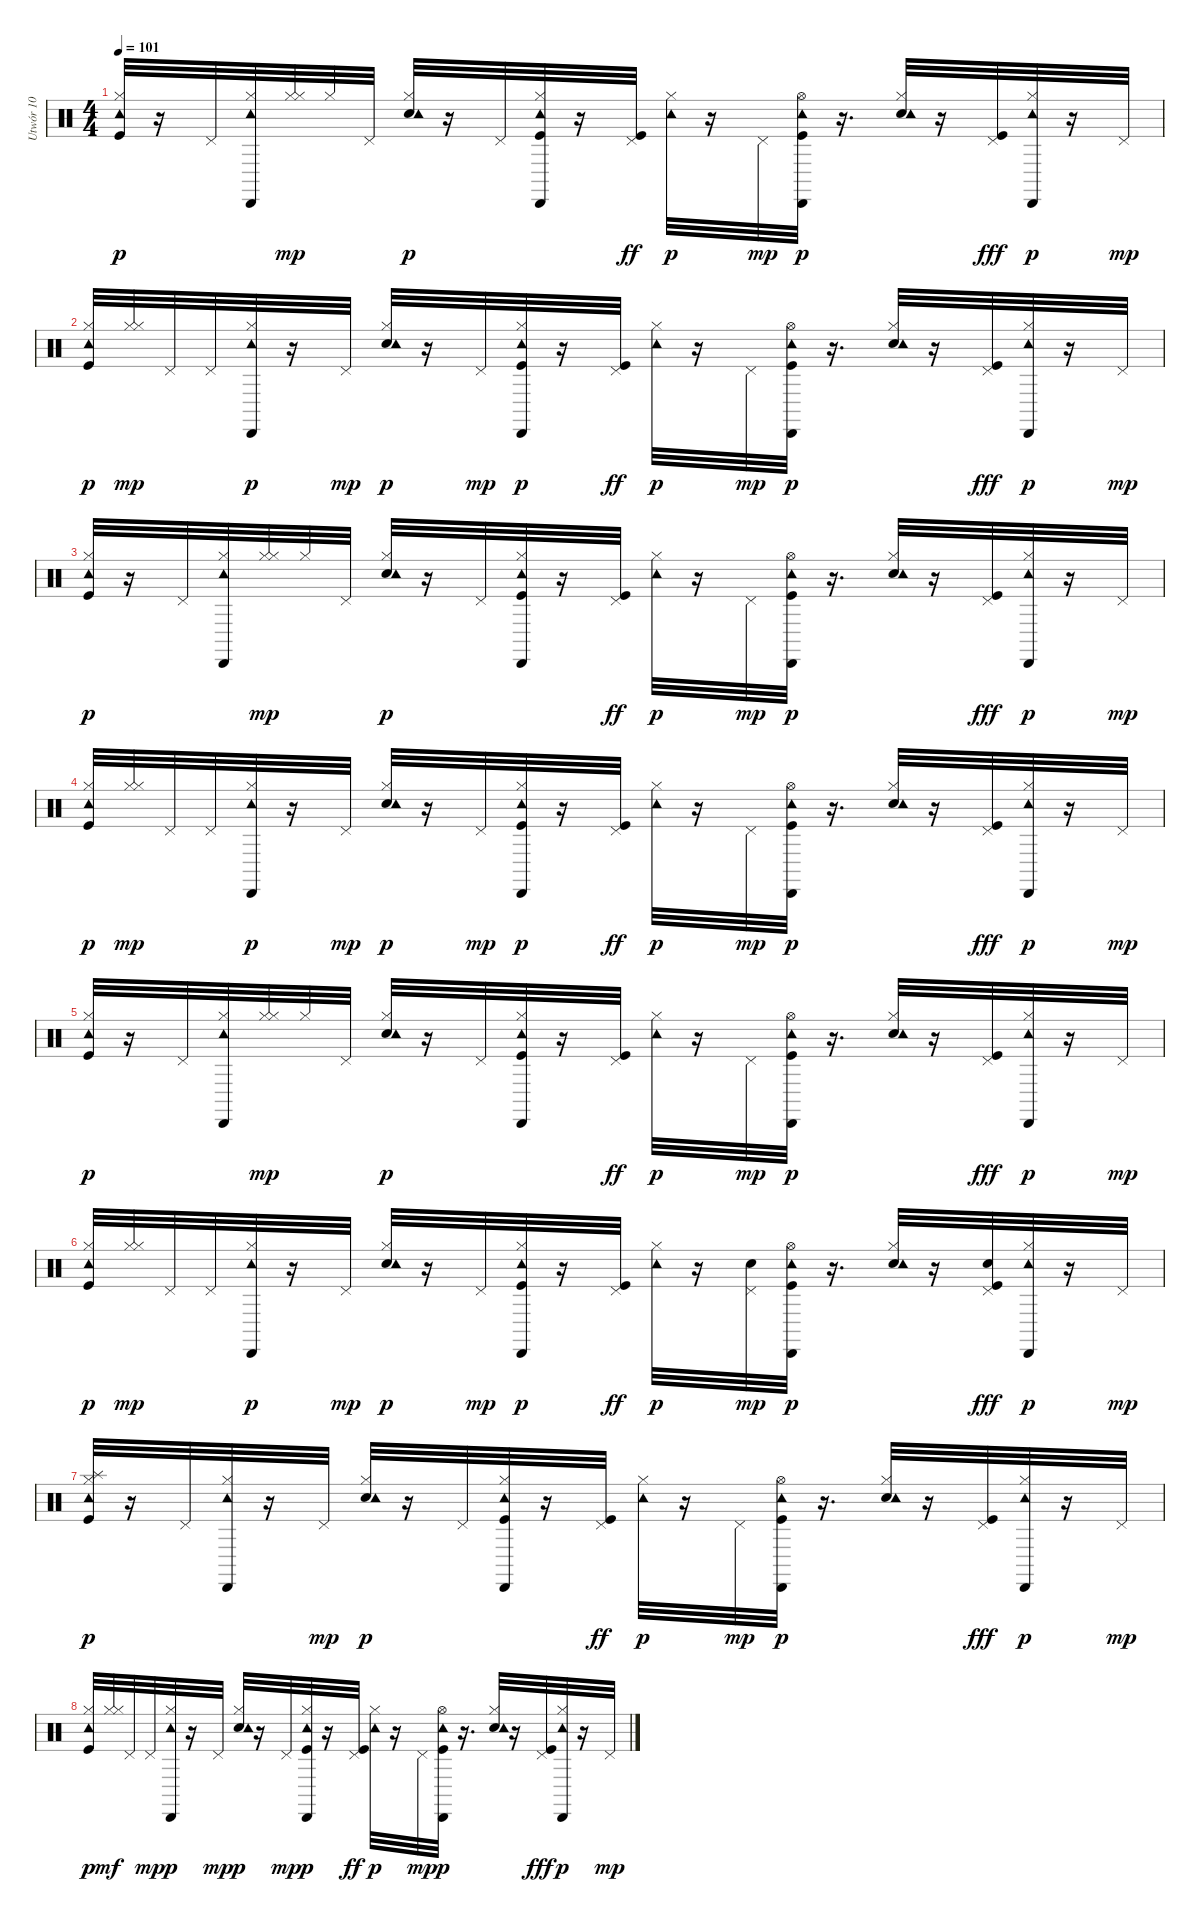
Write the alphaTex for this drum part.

\track ("Utwór 10" "Utwór 10") {instrument percussion}
\staff {score}
\articulation defaults
\ts (4 4)
\tempo 101
\clef neutral
\ks c
("Hi-Hat (closed)" "Kick (hit)" "Tambourine (hit)").32{dy p} r.16 "Pedal Hi-Hat (hit)".32 ("Cabasa (hit)" "Hi-Hat (closed)" "Tambourine (hit)").32 ("Hi-Hat (closed)" "Hi-Hat (closed)").32{dy mp} "Hi-Hat (closed)".32 "Pedal Hi-Hat (hit)".32 ("Electric Snare (hit)" "Hi-Hat (closed)" "Tambourine (hit)").32{dy p} r.16 "Pedal Hi-Hat (hit)".32 ("Cabasa (hit)" "Hi-Hat (closed)" "Kick (hit)" "Tambourine (hit)").32 r.16 ("Pedal Hi-Hat (hit)" "Kick (hit)").32{dy ff} ("Hi-Hat (closed)" "Tambourine (hit)").32{dy p} r.16 "Pedal Hi-Hat (hit)".32{dy mp} ("Cabasa (hit)" "Hi-Hat (open)" "Kick (hit)" "Tambourine (hit)").32{dy p} r.16{d} ("Electric Snare (hit)" "Hi-Hat (closed)" "Tambourine (hit)").32 r.16 ("Pedal Hi-Hat (hit)" "Kick (hit)").32{dy fff} ("Cabasa (hit)" "Hi-Hat (closed)" "Tambourine (hit)").32{dy p} r.16 "Pedal Hi-Hat (hit)".32{dy mp} |
("Hi-Hat (closed)" "Kick (hit)" "Tambourine (hit)").32{dy p} ("Hi-Hat (closed)" "Hi-Hat (closed)").32{dy mp} "Pedal Hi-Hat (hit)".32 "Pedal Hi-Hat (hit)".32 ("Cabasa (hit)" "Hi-Hat (closed)" "Tambourine (hit)").32{dy p} r.16 "Pedal Hi-Hat (hit)".32{dy mp} ("Electric Snare (hit)" "Hi-Hat (closed)" "Tambourine (hit)").32{dy p} r.16 "Pedal Hi-Hat (hit)".32{dy mp} ("Cabasa (hit)" "Hi-Hat (closed)" "Kick (hit)" "Tambourine (hit)").32{dy p} r.16 ("Pedal Hi-Hat (hit)" "Kick (hit)").32{dy ff} ("Hi-Hat (closed)" "Tambourine (hit)").32{dy p} r.16 "Pedal Hi-Hat (hit)".32{dy mp} ("Cabasa (hit)" "Hi-Hat (open)" "Kick (hit)" "Tambourine (hit)").32{dy p} r.16{d} ("Electric Snare (hit)" "Hi-Hat (closed)" "Tambourine (hit)").32 r.16 ("Pedal Hi-Hat (hit)" "Kick (hit)").32{dy fff} ("Cabasa (hit)" "Hi-Hat (closed)" "Tambourine (hit)").32{dy p} r.16 "Pedal Hi-Hat (hit)".32{dy mp} |
("Hi-Hat (closed)" "Kick (hit)" "Tambourine (hit)").32{dy p} r.16 "Pedal Hi-Hat (hit)".32 ("Cabasa (hit)" "Hi-Hat (closed)" "Tambourine (hit)").32 ("Hi-Hat (closed)" "Hi-Hat (closed)").32{dy mp} "Hi-Hat (closed)".32 "Pedal Hi-Hat (hit)".32 ("Electric Snare (hit)" "Hi-Hat (closed)" "Tambourine (hit)").32{dy p} r.16 "Pedal Hi-Hat (hit)".32 ("Cabasa (hit)" "Hi-Hat (closed)" "Kick (hit)" "Tambourine (hit)").32 r.16 ("Pedal Hi-Hat (hit)" "Kick (hit)").32{dy ff} ("Hi-Hat (closed)" "Tambourine (hit)").32{dy p} r.16 "Pedal Hi-Hat (hit)".32{dy mp} ("Cabasa (hit)" "Hi-Hat (open)" "Kick (hit)" "Tambourine (hit)").32{dy p} r.16{d} ("Electric Snare (hit)" "Hi-Hat (closed)" "Tambourine (hit)").32 r.16 ("Pedal Hi-Hat (hit)" "Kick (hit)").32{dy fff} ("Cabasa (hit)" "Hi-Hat (closed)" "Tambourine (hit)").32{dy p} r.16 "Pedal Hi-Hat (hit)".32{dy mp} |
("Hi-Hat (closed)" "Kick (hit)" "Tambourine (hit)").32{dy p} ("Hi-Hat (closed)" "Hi-Hat (closed)").32{dy mp} "Pedal Hi-Hat (hit)".32 "Pedal Hi-Hat (hit)".32 ("Cabasa (hit)" "Hi-Hat (closed)" "Tambourine (hit)").32{dy p} r.16 "Pedal Hi-Hat (hit)".32{dy mp} ("Electric Snare (hit)" "Hi-Hat (closed)" "Tambourine (hit)").32{dy p} r.16 "Pedal Hi-Hat (hit)".32{dy mp} ("Cabasa (hit)" "Hi-Hat (closed)" "Kick (hit)" "Tambourine (hit)").32{dy p} r.16 ("Pedal Hi-Hat (hit)" "Kick (hit)").32{dy ff} ("Hi-Hat (closed)" "Tambourine (hit)").32{dy p} r.16 "Pedal Hi-Hat (hit)".32{dy mp} ("Cabasa (hit)" "Hi-Hat (open)" "Kick (hit)" "Tambourine (hit)").32{dy p} r.16{d} ("Electric Snare (hit)" "Hi-Hat (closed)" "Tambourine (hit)").32 r.16 ("Pedal Hi-Hat (hit)" "Kick (hit)").32{dy fff} ("Cabasa (hit)" "Hi-Hat (closed)" "Tambourine (hit)").32{dy p} r.16 "Pedal Hi-Hat (hit)".32{dy mp} |
("Hi-Hat (closed)" "Kick (hit)" "Tambourine (hit)").32{dy p} r.16 "Pedal Hi-Hat (hit)".32 ("Cabasa (hit)" "Hi-Hat (closed)" "Tambourine (hit)").32 ("Hi-Hat (closed)" "Hi-Hat (closed)").32{dy mp} "Hi-Hat (closed)".32 "Pedal Hi-Hat (hit)".32 ("Electric Snare (hit)" "Hi-Hat (closed)" "Tambourine (hit)").32{dy p} r.16 "Pedal Hi-Hat (hit)".32 ("Cabasa (hit)" "Hi-Hat (closed)" "Kick (hit)" "Tambourine (hit)").32 r.16 ("Pedal Hi-Hat (hit)" "Kick (hit)").32{dy ff} ("Hi-Hat (closed)" "Tambourine (hit)").32{dy p} r.16 "Pedal Hi-Hat (hit)".32{dy mp} ("Cabasa (hit)" "Hi-Hat (open)" "Kick (hit)" "Tambourine (hit)").32{dy p} r.16{d} ("Electric Snare (hit)" "Hi-Hat (closed)" "Tambourine (hit)").32 r.16 ("Pedal Hi-Hat (hit)" "Kick (hit)").32{dy fff} ("Cabasa (hit)" "Hi-Hat (closed)" "Tambourine (hit)").32{dy p} r.16 "Pedal Hi-Hat (hit)".32{dy mp} |
("Hi-Hat (closed)" "Kick (hit)" "Tambourine (hit)").32{dy p} ("Hi-Hat (closed)" "Hi-Hat (closed)").32{dy mp} "Pedal Hi-Hat (hit)".32 "Pedal Hi-Hat (hit)".32 ("Cabasa (hit)" "Hi-Hat (closed)" "Tambourine (hit)").32{dy p} r.16 "Pedal Hi-Hat (hit)".32{dy mp} ("Electric Snare (hit)" "Hi-Hat (closed)" "Tambourine (hit)").32{dy p} r.16 "Pedal Hi-Hat (hit)".32{dy mp} ("Cabasa (hit)" "Hi-Hat (closed)" "Kick (hit)" "Tambourine (hit)").32{dy p} r.16 ("Pedal Hi-Hat (hit)" "Kick (hit)").32{dy ff} ("Hi-Hat (closed)" "Tambourine (hit)").32{dy p} r.16 ("Electric Snare (hit)" "Pedal Hi-Hat (hit)").32{dy mp} ("Cabasa (hit)" "Hi-Hat (open)" "Kick (hit)" "Tambourine (hit)").32{dy p} r.16{d} ("Electric Snare (hit)" "Hi-Hat (closed)" "Tambourine (hit)").32 r.16 ("Electric Snare (hit)" "Pedal Hi-Hat (hit)" "Kick (hit)").32{dy fff} ("Cabasa (hit)" "Hi-Hat (closed)" "Tambourine (hit)").32{dy p} r.16 "Pedal Hi-Hat (hit)".32{dy mp} |
("Splash (hit)" "Hi-Hat (closed)" "Kick (hit)" "Tambourine (hit)").32{dy p} r.16 "Pedal Hi-Hat (hit)".32 ("Cabasa (hit)" "Hi-Hat (closed)" "Tambourine (hit)").32 r.16 "Pedal Hi-Hat (hit)".32{dy mp} ("Electric Snare (hit)" "Hi-Hat (closed)" "Tambourine (hit)").32{dy p} r.16 "Pedal Hi-Hat (hit)".32 ("Cabasa (hit)" "Hi-Hat (closed)" "Kick (hit)" "Tambourine (hit)").32 r.16 ("Pedal Hi-Hat (hit)" "Kick (hit)").32{dy ff} ("Hi-Hat (closed)" "Tambourine (hit)").32{dy p} r.16 "Pedal Hi-Hat (hit)".32{dy mp} ("Cabasa (hit)" "Hi-Hat (open)" "Kick (hit)" "Tambourine (hit)").32{dy p} r.16{d} ("Electric Snare (hit)" "Hi-Hat (closed)" "Tambourine (hit)").32 r.16 ("Pedal Hi-Hat (hit)" "Kick (hit)").32{dy fff} ("Cabasa (hit)" "Hi-Hat (closed)" "Tambourine (hit)").32{dy p} r.16 "Pedal Hi-Hat (hit)".32{dy mp} |
("Hi-Hat (closed)" "Kick (hit)" "Tambourine (hit)").32{dy p} ("Hi-Hat (closed)" "Hi-Hat (closed)").32{dy mf} "Pedal Hi-Hat (hit)".32 "Pedal Hi-Hat (hit)".32{dy mp} ("Cabasa (hit)" "Hi-Hat (closed)" "Tambourine (hit)").32{dy p} r.16 "Pedal Hi-Hat (hit)".32{dy mp} ("Electric Snare (hit)" "Hi-Hat (closed)" "Tambourine (hit)").32{dy p} r.16 "Pedal Hi-Hat (hit)".32{dy mp} ("Cabasa (hit)" "Hi-Hat (closed)" "Kick (hit)" "Tambourine (hit)").32{dy p} r.16 ("Pedal Hi-Hat (hit)" "Kick (hit)").32{dy ff} ("Hi-Hat (closed)" "Tambourine (hit)").32{dy p} r.16 "Pedal Hi-Hat (hit)".32{dy mp} ("Cabasa (hit)" "Hi-Hat (open)" "Kick (hit)" "Tambourine (hit)").32{dy p} r.16{d} ("Electric Snare (hit)" "Hi-Hat (closed)" "Tambourine (hit)").32 r.16 ("Pedal Hi-Hat (hit)" "Kick (hit)").32{dy fff} ("Cabasa (hit)" "Hi-Hat (closed)" "Tambourine (hit)").32{dy p} r.16 "Pedal Hi-Hat (hit)".32{dy mp}
